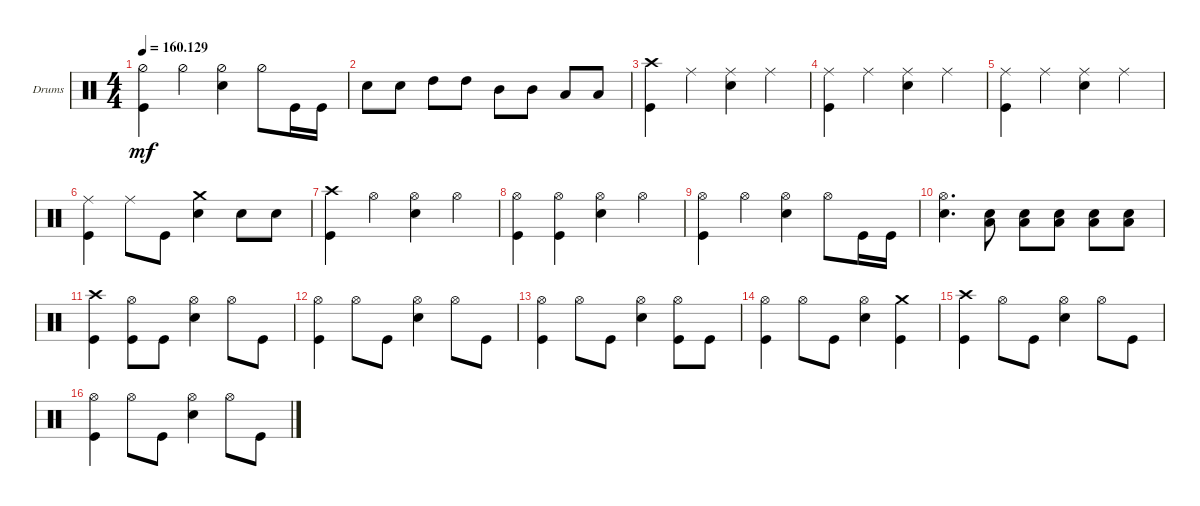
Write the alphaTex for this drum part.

\defaultSystemsLayout 4
\bracketExtendMode groupsimilarinstruments
\firstSystemTrackNameOrientation horizontal
\otherSystemsTrackNameOrientation horizontal
\track ("Drumkit" "Drums") {instrument percussion}
\staff {score}
\articulation defaults
\ts (4 4)
\tempo
160.129
\accidentals auto
\clef neutral
\ottava regular
\simile none
\ks c
("Hi-Hat (half)" "Kick (hit)").4{dy mf} "Hi-Hat (half)".4 ("Hi-Hat (half)" "Snare (hit) 2").4 "Hi-Hat (half)".8 "Kick (hit)".16 "Kick (hit)".16 |
"Snare (hit) 2".8 "Snare (hit) 2".8 "High Tom (hit)".8 "High Tom (hit)".8 "Mid Tom (hit)".8 "Mid Tom (hit)".8 "Low Tom (hit)".8 "Low Tom (hit)".8 |
("Kick (hit)" "Crash high (hit)").4 "Ride (middle)".4 ("Ride (middle)" "Snare (hit) 2").4 "Ride (middle)".4 |
("Kick (hit)" "Ride (middle)").4 "Ride (middle)".4 ("Ride (middle)" "Snare (hit) 2").4 "Ride (middle)".4 |
("Kick (hit)" "Ride (middle)").4 "Ride (middle)".4 ("Ride (middle)" "Snare (hit) 2").4 "Ride (middle)".4 |
("Kick (hit)" "Ride (middle)").4 "Ride (middle)".8 "Kick (hit)".8 ("Snare (hit) 2" "Crash medium (hit)").4 "Snare (hit) 2".8 "Snare (hit) 2".8 |
("Kick (hit)" "Crash high (hit)").4 "Hi-Hat (open)".4 ("Hi-Hat (open)" "Snare (hit) 2").4 "Hi-Hat (open)".4 |
("Hi-Hat (open)" "Kick (hit)").4 ("Hi-Hat (open)" "Kick (hit)").4 ("Hi-Hat (open)" "Snare (hit) 2").4 "Hi-Hat (open)".4 |
("Hi-Hat (open)" "Kick (hit)").4 "Hi-Hat (open)".4 ("Hi-Hat (open)" "Snare (hit) 2").4 "Hi-Hat (open)".8 "Kick (hit)".16 "Kick (hit)".16 |
("Snare (hit) 2" "Hi-Hat (open)").4{d} ("Snare (hit) 2" "Low Tom (hit)").8 ("Low Tom (hit)" "Snare (hit) 2").8 ("Low Tom (hit)" "Snare (hit) 2").8 ("Low Tom (hit)" "Snare (hit) 2").8 ("Low Tom (hit)" "Snare (hit) 2").8 |
("Kick (hit)" "Crash high (hit)").4 ("Hi-Hat (open)" "Kick (hit)").8 "Kick (hit)".8 ("Hi-Hat (open)" "Snare (hit) 2").4 "Hi-Hat (open)".8 "Kick (hit)".8 |
("Kick (hit)" "Hi-Hat (open)").4 "Hi-Hat (open)".8 "Kick (hit)".8 ("Snare (hit) 2" "Hi-Hat (open)").4 "Hi-Hat (open)".8 "Kick (hit)".8 |
("Kick (hit)" "Hi-Hat (open)").4 "Hi-Hat (open)".8 "Kick (hit)".8 ("Hi-Hat (open)" "Snare (hit) 2").4 ("Hi-Hat (open)" "Kick (hit)").8 "Kick (hit)".8 |
("Kick (hit)" "Hi-Hat (open)").4 "Hi-Hat (open)".8 "Kick (hit)".8 ("Hi-Hat (open)" "Snare (hit) 2").4 ("Crash medium (hit)" "Kick (hit)").4 |
("Kick (hit)" "Crash high (hit)").4 "Hi-Hat (open)".8 "Kick (hit)".8 ("Hi-Hat (open)" "Snare (hit) 2").4 "Hi-Hat (open)".8 "Kick (hit)".8 |
("Kick (hit)" "Hi-Hat (open)").4 "Hi-Hat (open)".8 "Kick (hit)".8 ("Snare (hit) 2" "Hi-Hat (open)").4 "Hi-Hat (open)".8 "Kick (hit)".8
